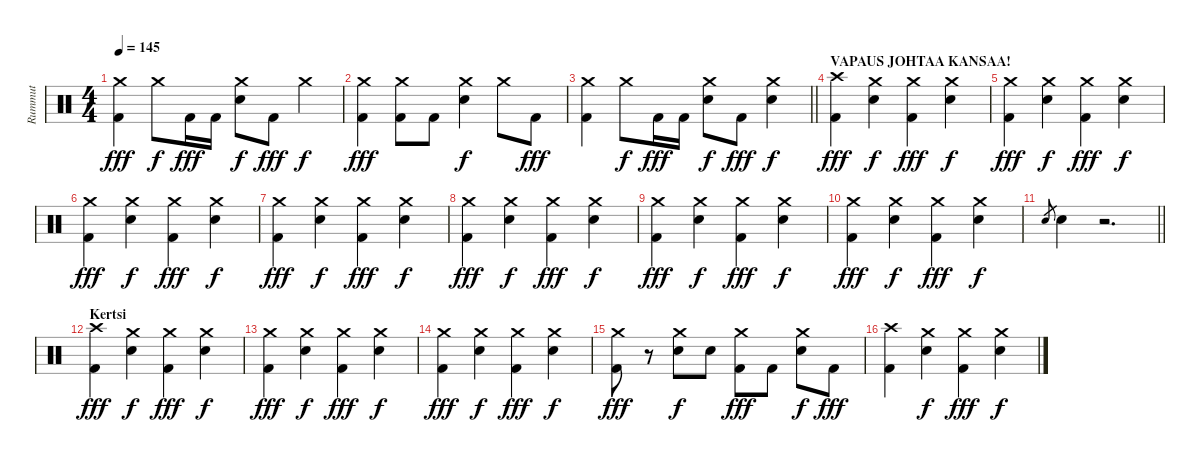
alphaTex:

\track ("Rummut" "Rummut") {instrument percussion}
\staff {score}
\articulation defaults
\ts (4 4)
\tempo 145
\clef neutral
\ks c
("Crash medium (hit)" "Kick (hit) 2").4{dy fff} "Crash medium (hit)".8{dy f} "Kick (hit) 2".16{dy fff} "Kick (hit) 2".16 ("Crash medium (hit)" "Snare (hit) 2").8{dy f} "Kick (hit) 2".8{dy fff} "Crash medium (hit)".4{dy f} |
("Crash medium (hit)" "Kick (hit) 2").4{dy fff} ("Crash medium (hit)" "Kick (hit) 2").8 "Kick (hit) 2".8 ("Crash medium (hit)" "Snare (hit) 2").4{dy f} "Crash medium (hit)".8 "Kick (hit) 2".8{dy fff} |
\barLineRight lightlight
("Crash medium (hit)" "Kick (hit) 2").4 "Crash medium (hit)".8{dy f} "Kick (hit) 2".16{dy fff} "Kick (hit) 2".16 ("Crash medium (hit)" "Snare (hit) 2").8{dy f} "Kick (hit) 2".8{dy fff} ("Crash medium (hit)" "Snare (hit) 2").4{dy f} |
\section ("" "VAPAUS JOHTAA KANSAA!")
("Crash high (hit)" "Kick (hit) 2").4{dy fff} ("Crash medium (hit)" "Snare (hit) 2").4{dy f} ("Crash medium (hit)" "Kick (hit) 2").4{dy fff} ("Crash medium (hit)" "Snare (hit) 2").4{dy f} |
("Crash medium (hit)" "Kick (hit) 2").4{dy fff} ("Crash medium (hit)" "Snare (hit) 2").4{dy f} ("Crash medium (hit)" "Kick (hit) 2").4{dy fff} ("Crash medium (hit)" "Snare (hit) 2").4{dy f} |
("Crash medium (hit)" "Kick (hit) 2").4{dy fff} ("Crash medium (hit)" "Snare (hit) 2").4{dy f} ("Crash medium (hit)" "Kick (hit) 2").4{dy fff} ("Crash medium (hit)" "Snare (hit) 2").4{dy f} |
("Crash medium (hit)" "Kick (hit) 2").4{dy fff} ("Crash medium (hit)" "Snare (hit) 2").4{dy f} ("Crash medium (hit)" "Kick (hit) 2").4{dy fff} ("Crash medium (hit)" "Snare (hit) 2").4{dy f} |
("Crash medium (hit)" "Kick (hit) 2").4{dy fff} ("Crash medium (hit)" "Snare (hit) 2").4{dy f} ("Crash medium (hit)" "Kick (hit) 2").4{dy fff} ("Crash medium (hit)" "Snare (hit) 2").4{dy f} |
("Crash medium (hit)" "Kick (hit) 2").4{dy fff} ("Crash medium (hit)" "Snare (hit) 2").4{dy f} ("Crash medium (hit)" "Kick (hit) 2").4{dy fff} ("Crash medium (hit)" "Snare (hit) 2").4{dy f} |
("Crash medium (hit)" "Kick (hit) 2").4{dy fff} ("Crash medium (hit)" "Snare (hit) 2").4{dy f} ("Crash medium (hit)" "Kick (hit) 2").4{dy fff} ("Crash medium (hit)" "Snare (hit) 2").4{dy f} |
\barLineRight lightlight "Snare (hit) 2".8{gr} "Snare (hit) 2".4
r.2{d} |
\section ("" "Kertsi")
("Crash high (hit)" "Kick (hit) 2").4{dy fff} ("Crash medium (hit)" "Snare (hit) 2").4{dy f} ("Crash medium (hit)" "Kick (hit) 2").4{dy fff} ("Crash medium (hit)" "Snare (hit) 2").4{dy f} |
("Crash medium (hit)" "Kick (hit) 2").4{dy fff} ("Crash medium (hit)" "Snare (hit) 2").4{dy f} ("Crash medium (hit)" "Kick (hit) 2").4{dy fff} ("Crash medium (hit)" "Snare (hit) 2").4{dy f} |
("Crash medium (hit)" "Kick (hit) 2").4{dy fff} ("Crash medium (hit)" "Snare (hit) 2").4{dy f} ("Crash medium (hit)" "Kick (hit) 2").4{dy fff} ("Crash medium (hit)" "Snare (hit) 2").4{dy f} |
("Crash medium (hit)" "Kick (hit) 2").8{dy fff} r.8 ("Crash medium (hit)" "Snare (hit) 2").8{dy f} "Snare (hit) 2".8 ("Crash medium (hit)" "Kick (hit) 2").8{dy fff} "Kick (hit) 2".8 ("Crash medium (hit)" "Snare (hit) 2").8{dy f} "Kick (hit) 2".8{dy fff} |
("Crash high (hit)" "Kick (hit) 2").4 ("Crash medium (hit)" "Snare (hit) 2").4{dy f} ("Crash medium (hit)" "Kick (hit) 2").4{dy fff} ("Crash medium (hit)" "Snare (hit) 2").4{dy f}
